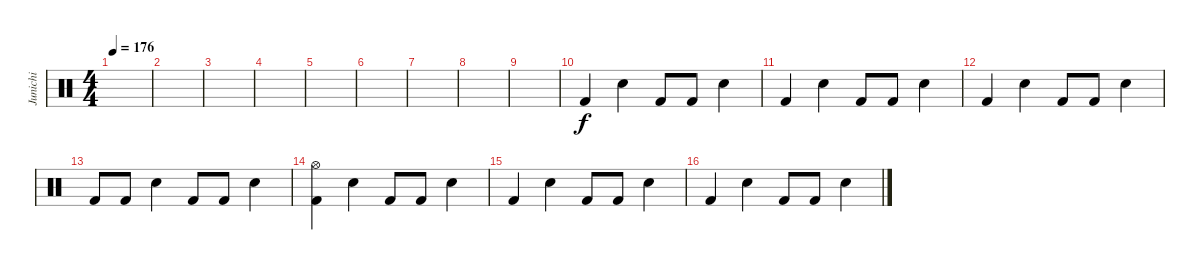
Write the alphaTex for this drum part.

\track ("Junichi" "Junichi") {instrument percussion}
\staff {score}
\articulation defaults
\ts (4 4)
\tempo 176
\clef neutral
\ks c
|
|
|
|
|
|
|
|
|
"Kick (hit) 2".4 "Snare (hit) 2".4 "Kick (hit) 2".8 "Kick (hit) 2".8 "Snare (hit) 2".4 |
"Kick (hit) 2".4 "Snare (hit) 2".4 "Kick (hit) 2".8 "Kick (hit) 2".8 "Snare (hit) 2".4 |
"Kick (hit) 2".4 "Snare (hit) 2".4 "Kick (hit) 2".8 "Kick (hit) 2".8 "Snare (hit) 2".4 |
"Kick (hit) 2".8 "Kick (hit) 2".8 "Snare (hit) 2".4 "Kick (hit) 2".8 "Kick (hit) 2".8 "Snare (hit) 2".4 |
("Hi-Hat (open)" "Kick (hit) 2").4 "Snare (hit) 2".4 "Kick (hit) 2".8 "Kick (hit) 2".8 "Snare (hit) 2".4 |
"Kick (hit) 2".4 "Snare (hit) 2".4 "Kick (hit) 2".8 "Kick (hit) 2".8 "Snare (hit) 2".4 |
"Kick (hit) 2".4 "Snare (hit) 2".4 "Kick (hit) 2".8 "Kick (hit) 2".8 "Snare (hit) 2".4
